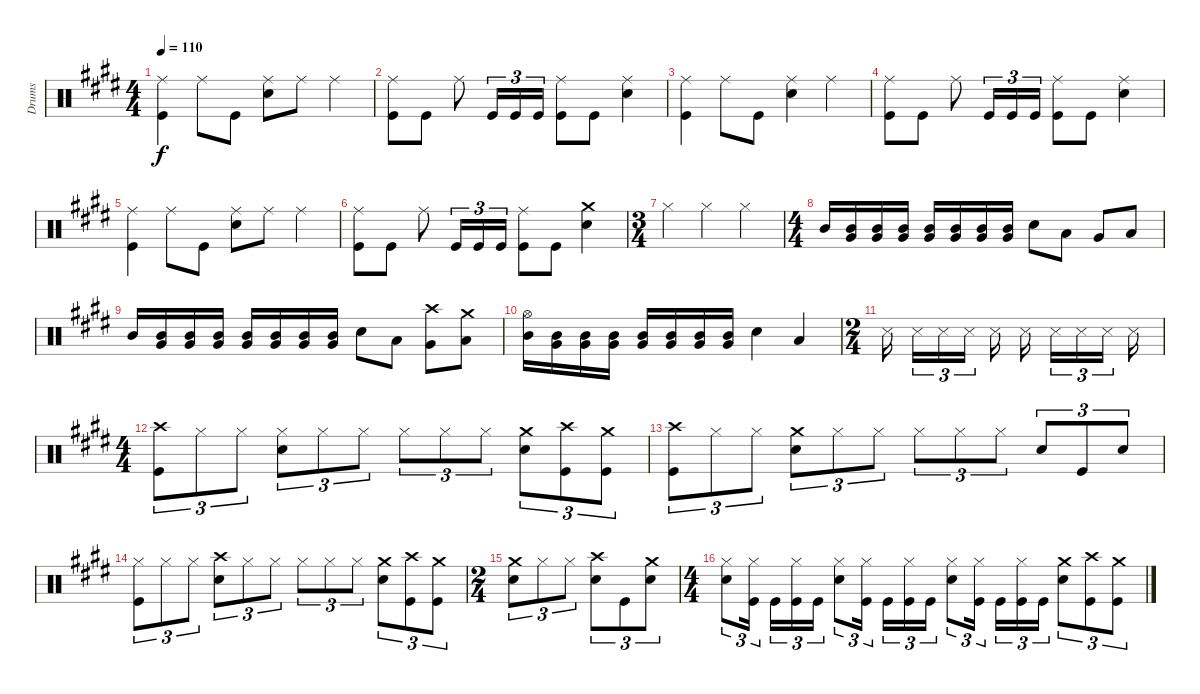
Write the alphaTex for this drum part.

\track ("Drums" "Drums") {instrument percussion}
\staff {score}
\articulation defaults
\ts (4 4)
\tempo 110
\clef neutral
\ks e
("Ride (middle)" "Kick (hit)").4{dy f} "Ride (middle)".8 "Kick (hit)".8 ("Ride (middle)" "Snare (hit) 2").8 "Ride (middle)".8 "Ride (middle)".4 |
("Ride (middle)" "Kick (hit)").8 "Kick (hit)".8 "Ride (middle)".8 "Kick (hit)".16{tu (3 2)} "Kick (hit)".16{tu (3 2)} "Kick (hit)".16{tu (3 2)} ("Ride (middle)" "Kick (hit)").8 "Kick (hit)".8 ("Ride (middle)" "Snare (hit) 2").4 |
("Ride (middle)" "Kick (hit)").4 "Ride (middle)".8 "Kick (hit)".8 ("Ride (middle)" "Snare (hit) 2").4 "Ride (middle)".4 |
("Ride (middle)" "Kick (hit)").8 "Kick (hit)".8 "Ride (middle)".8 "Kick (hit)".16{tu (3 2)} "Kick (hit)".16{tu (3 2)} "Kick (hit)".16{tu (3 2)} ("Ride (middle)" "Kick (hit)").8 "Kick (hit)".8 ("Ride (middle)" "Snare (hit) 2").4 |
("Ride (middle)" "Kick (hit)").4 "Ride (middle)".8 "Kick (hit)".8 ("Ride (middle)" "Snare (hit) 2").8 "Ride (middle)".8 "Ride (middle)".4 |
("Ride (middle)" "Kick (hit)").8 "Kick (hit)".8 "Ride (middle)".8 "Kick (hit)".16{tu (3 2)} "Kick (hit)".16{tu (3 2)} "Kick (hit)".16{tu (3 2)} ("Ride (middle)" "Kick (hit)").8 "Kick (hit)".8 ("Crash medium (hit)" "Snare (hit) 2").4 |
\ts (3 4)
"Hi-Hat (closed)".4 "Hi-Hat (closed)".4 "Hi-Hat (closed)".4 |
\ts (4 4)
"Mid Tom (hit)".16 ("Very Low Tom (hit)" "Mid Tom (hit)").16 ("Very Low Tom (hit)" "Mid Tom (hit)").16 ("Very Low Tom (hit)" "Mid Tom (hit)").16 ("Very Low Tom (hit)" "Mid Tom (hit)").16 ("Very Low Tom (hit)" "Mid Tom (hit)").16 ("Very Low Tom (hit)" "Mid Tom (hit)").16 ("Very Low Tom (hit)" "Mid Tom (hit)").16 "Snare (hit) 2".8 "Low Tom (hit)".8 "Very Low Tom (hit)".8 "Low Floor Tom (hit)".8 |
"Mid Tom (hit)".16 ("Very Low Tom (hit)" "Mid Tom (hit)").16 ("Very Low Tom (hit)" "Mid Tom (hit)").16 ("Very Low Tom (hit)" "Mid Tom (hit)").16 ("Very Low Tom (hit)" "Mid Tom (hit)").16 ("Very Low Tom (hit)" "Mid Tom (hit)").16 ("Very Low Tom (hit)" "Mid Tom (hit)").16 ("Very Low Tom (hit)" "Mid Tom (hit)").16 "Snare (hit) 2".8 "Low Tom (hit)".8 ("Crash high (hit)" "Very Low Tom (hit)").8 ("Crash medium (hit)" "Low Floor Tom (hit)").8 |
("Hi-Hat (open)" "Mid Tom (hit)").16 ("Very Low Tom (hit)" "Mid Tom (hit)").16 ("Very Low Tom (hit)" "Mid Tom (hit)").16 ("Very Low Tom (hit)" "Mid Tom (hit)").16 ("Very Low Tom (hit)" "Mid Tom (hit)").16 ("Very Low Tom (hit)" "Mid Tom (hit)").16 ("Very Low Tom (hit)" "Mid Tom (hit)").16 ("Very Low Tom (hit)" "Mid Tom (hit)").16 "Snare (hit) 2".4 "Low Floor Tom (hit)".4 |
\ts (2 4)
"Snare (side stick) 3".16{beam splitsecondary} "Snare (side stick) 3".16{tu (3 2)} "Snare (side stick) 3".16{tu (3 2)} "Snare (side stick) 3".16{tu (3 2) beam splitsecondary} "Snare (side stick) 3".16 "Snare (side stick) 3".16{beam splitsecondary} "Snare (side stick) 3".16{tu (3 2)} "Snare (side stick) 3".16{tu (3 2)} "Snare (side stick) 3".16{tu (3 2) beam splitsecondary} "Snare (side stick) 3".16 |
\ts (4 4)
("Crash high (hit)" "Kick (hit)").8{tu (3 2)} "Hi-Hat (closed)".8{tu (3 2)} "Hi-Hat (closed)".8{tu (3 2)} ("Hi-Hat (closed)" "Snare (hit) 2").8{tu (3 2)} "Hi-Hat (closed)".8{tu (3 2)} "Hi-Hat (closed)".8{tu (3 2)} "Hi-Hat (closed)".8{tu (3 2)} "Hi-Hat (closed)".8{tu (3 2)} "Hi-Hat (closed)".8{tu (3 2)} ("Crash medium (hit)" "Snare (hit) 2").8{tu (3 2)} ("Crash high (hit)" "Kick (hit)").8{tu (3 2)} ("Crash medium (hit)" "Kick (hit)").8{tu (3 2)} |
("Crash high (hit)" "Kick (hit)").8{tu (3 2)} "Hi-Hat (closed)".8{tu (3 2)} "Hi-Hat (closed)".8{tu (3 2)} ("Crash medium (hit)" "Snare (hit) 2").8{tu (3 2)} "Hi-Hat (closed)".8{tu (3 2)} "Hi-Hat (closed)".8{tu (3 2)} "Hi-Hat (closed)".8{tu (3 2)} "Hi-Hat (closed)".8{tu (3 2)} "Hi-Hat (closed)".8{tu (3 2)} "Snare (hit) 2".8{tu (3 2)} "Kick (hit)".8{tu (3 2)} "Snare (hit) 2".8{tu (3 2)} |
("Hi-Hat (closed)" "Kick (hit)").8{tu (3 2)} "Hi-Hat (closed)".8{tu (3 2)} "Hi-Hat (closed)".8{tu (3 2)} ("Crash high (hit)" "Snare (hit) 2").8{tu (3 2)} "Hi-Hat (closed)".8{tu (3 2)} "Hi-Hat (closed)".8{tu (3 2)} "Hi-Hat (closed)".8{tu (3 2)} "Hi-Hat (closed)".8{tu (3 2)} "Hi-Hat (closed)".8{tu (3 2)} ("Crash medium (hit)" "Snare (hit) 2").8{tu (3 2)} ("Crash high (hit)" "Kick (hit)").8{tu (3 2)} ("Crash medium (hit)" "Kick (hit)").8{tu (3 2)} |
\ts (2 4)
("Crash medium (hit)" "Snare (hit) 2").8{tu (3 2)} "Hi-Hat (closed)".8{tu (3 2)} "Hi-Hat (closed)".8{tu (3 2)} ("Crash high (hit)" "Snare (hit) 2").8{tu (3 2)} "Kick (hit)".8{tu (3 2)} ("Crash medium (hit)" "Snare (hit) 2").8{tu (3 2)} |
\ts (4 4)
("Hi-Hat (closed)" "Snare (hit) 2").8{tu (3 2)} ("Hi-Hat (closed)" "Kick (hit)").16{tu (3 2) beam splitsecondary} "Kick (hit)".16{tu (3 2)} ("Hi-Hat (closed)" "Kick (hit)").16{tu (3 2)} "Kick (hit)".16{tu (3 2)} ("Hi-Hat (closed)" "Snare (hit) 2").8{tu (3 2)} ("Hi-Hat (closed)" "Kick (hit)").16{tu (3 2) beam splitsecondary} "Kick (hit)".16{tu (3 2)} ("Hi-Hat (closed)" "Kick (hit)").16{tu (3 2)} "Kick (hit)".16{tu (3 2)} ("Hi-Hat (closed)" "Snare (hit) 2").8{tu (3 2)} ("Hi-Hat (closed)" "Kick (hit)").16{tu (3 2) beam splitsecondary} "Kick (hit)".16{tu (3 2)} ("Hi-Hat (closed)" "Kick (hit)").16{tu (3 2)} "Kick (hit)".16{tu (3 2)} ("Crash medium (hit)" "Snare (hit) 2").8{tu (3 2)} ("Crash high (hit)" "Kick (hit)").8{tu (3 2)} ("Crash medium (hit)" "Kick (hit)").8{tu (3 2)}
